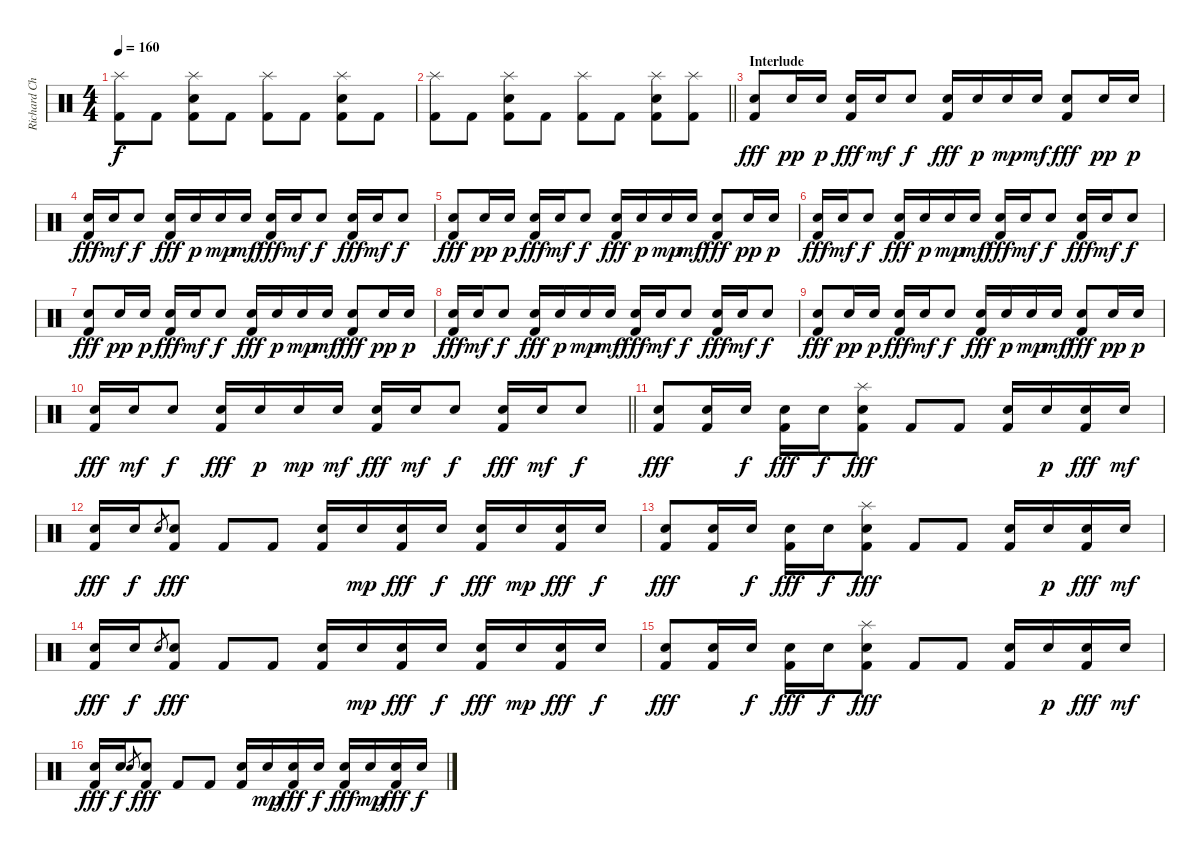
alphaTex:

\track ("Richard Christy" "Richard Ch") {instrument percussion}
\staff {score}
\articulation defaults
\ts (4 4)
\tempo 160
\clef neutral
\ks c
("Splash (hit)" "Kick (hit) 2").8{dy f} "Kick (hit) 2".8 ("Splash (hit)" "Snare (hit) 2" "Kick (hit) 2").8 "Kick (hit) 2".8 ("Splash (hit)" "Kick (hit) 2").8 "Kick (hit) 2".8 ("Splash (hit)" "Snare (hit) 2" "Kick (hit) 2").8 "Kick (hit) 2".8 |
\barLineRight lightlight
("Splash (hit)" "Kick (hit) 2").8 "Kick (hit) 2".8 ("Splash (hit)" "Snare (hit) 2" "Kick (hit) 2").8 "Kick (hit) 2".8 ("Splash (hit)" "Kick (hit) 2").8 "Kick (hit) 2".8 ("Splash (hit)" "Snare (hit) 2" "Kick (hit) 2").8 ("Splash (hit)" "Kick (hit) 2").8 |
\section ("" "Interlude")
("Snare (hit) 2" "Kick (hit) 2").8{dy fff} "Snare (hit) 2".16{dy pp} "Snare (hit) 2".16{dy p} ("Snare (hit) 2" "Kick (hit) 2").16{dy fff} "Snare (hit) 2".16{dy mf} "Snare (hit) 2".8{dy f} ("Snare (hit) 2" "Kick (hit) 2").16{dy fff} "Snare (hit) 2".16{dy p} "Snare (hit) 2".16{dy mp} "Snare (hit) 2".16{dy mf} ("Snare (hit) 2" "Kick (hit) 2").8{dy fff} "Snare (hit) 2".16{dy pp} "Snare (hit) 2".16{dy p} |
("Snare (hit) 2" "Kick (hit) 2").16{dy fff} "Snare (hit) 2".16{dy mf} "Snare (hit) 2".8{dy f} ("Snare (hit) 2" "Kick (hit) 2").16{dy fff} "Snare (hit) 2".16{dy p} "Snare (hit) 2".16{dy mp} "Snare (hit) 2".16{dy mf} ("Snare (hit) 2" "Kick (hit) 2").16{dy fff} "Snare (hit) 2".16{dy mf} "Snare (hit) 2".8{dy f} ("Snare (hit) 2" "Kick (hit) 2").16{dy fff} "Snare (hit) 2".16{dy mf} "Snare (hit) 2".8{dy f} |
("Snare (hit) 2" "Kick (hit) 2").8{dy fff} "Snare (hit) 2".16{dy pp} "Snare (hit) 2".16{dy p} ("Snare (hit) 2" "Kick (hit) 2").16{dy fff} "Snare (hit) 2".16{dy mf} "Snare (hit) 2".8{dy f} ("Snare (hit) 2" "Kick (hit) 2").16{dy fff} "Snare (hit) 2".16{dy p} "Snare (hit) 2".16{dy mp} "Snare (hit) 2".16{dy mf} ("Snare (hit) 2" "Kick (hit) 2").8{dy fff} "Snare (hit) 2".16{dy pp} "Snare (hit) 2".16{dy p} |
("Snare (hit) 2" "Kick (hit) 2").16{dy fff} "Snare (hit) 2".16{dy mf} "Snare (hit) 2".8{dy f} ("Snare (hit) 2" "Kick (hit) 2").16{dy fff} "Snare (hit) 2".16{dy p} "Snare (hit) 2".16{dy mp} "Snare (hit) 2".16{dy mf} ("Snare (hit) 2" "Kick (hit) 2").16{dy fff} "Snare (hit) 2".16{dy mf} "Snare (hit) 2".8{dy f} ("Snare (hit) 2" "Kick (hit) 2").16{dy fff} "Snare (hit) 2".16{dy mf} "Snare (hit) 2".8{dy f} |
("Snare (hit) 2" "Kick (hit) 2").8{dy fff} "Snare (hit) 2".16{dy pp} "Snare (hit) 2".16{dy p} ("Snare (hit) 2" "Kick (hit) 2").16{dy fff} "Snare (hit) 2".16{dy mf} "Snare (hit) 2".8{dy f} ("Snare (hit) 2" "Kick (hit) 2").16{dy fff} "Snare (hit) 2".16{dy p} "Snare (hit) 2".16{dy mp} "Snare (hit) 2".16{dy mf} ("Snare (hit) 2" "Kick (hit) 2").8{dy fff} "Snare (hit) 2".16{dy pp} "Snare (hit) 2".16{dy p} |
("Snare (hit) 2" "Kick (hit) 2").16{dy fff} "Snare (hit) 2".16{dy mf} "Snare (hit) 2".8{dy f} ("Snare (hit) 2" "Kick (hit) 2").16{dy fff} "Snare (hit) 2".16{dy p} "Snare (hit) 2".16{dy mp} "Snare (hit) 2".16{dy mf} ("Snare (hit) 2" "Kick (hit) 2").16{dy fff} "Snare (hit) 2".16{dy mf} "Snare (hit) 2".8{dy f} ("Snare (hit) 2" "Kick (hit) 2").16{dy fff} "Snare (hit) 2".16{dy mf} "Snare (hit) 2".8{dy f} |
("Snare (hit) 2" "Kick (hit) 2").8{dy fff} "Snare (hit) 2".16{dy pp} "Snare (hit) 2".16{dy p} ("Snare (hit) 2" "Kick (hit) 2").16{dy fff} "Snare (hit) 2".16{dy mf} "Snare (hit) 2".8{dy f} ("Snare (hit) 2" "Kick (hit) 2").16{dy fff} "Snare (hit) 2".16{dy p} "Snare (hit) 2".16{dy mp} "Snare (hit) 2".16{dy mf} ("Snare (hit) 2" "Kick (hit) 2").8{dy fff} "Snare (hit) 2".16{dy pp} "Snare (hit) 2".16{dy p} |
\barLineRight lightlight
("Snare (hit) 2" "Kick (hit) 2").16{dy fff} "Snare (hit) 2".16{dy mf} "Snare (hit) 2".8{dy f} ("Snare (hit) 2" "Kick (hit) 2").16{dy fff} "Snare (hit) 2".16{dy p} "Snare (hit) 2".16{dy mp} "Snare (hit) 2".16{dy mf} ("Snare (hit) 2" "Kick (hit) 2").16{dy fff} "Snare (hit) 2".16{dy mf} "Snare (hit) 2".8{dy f} ("Snare (hit) 2" "Kick (hit) 2").16{dy fff} "Snare (hit) 2".16{dy mf} "Snare (hit) 2".8{dy f} |
("Snare (hit) 2" "Kick (hit) 2").8{dy fff} ("Snare (hit) 2" "Kick (hit) 2").16 "Snare (hit) 2".16{dy f} ("Snare (hit) 2" "Kick (hit) 2").16{dy fff} "Snare (hit) 2".16{dy f} ("Splash (hit)" "Snare (hit) 2" "Kick (hit) 2").8{dy fff} "Kick (hit) 2".8 "Kick (hit) 2".8 ("Snare (hit) 2" "Kick (hit) 2").16 "Snare (hit) 2".16{dy p} ("Snare (hit) 2" "Kick (hit) 2").16{dy fff} "Snare (hit) 2".16{dy mf} |
("Snare (hit) 2" "Kick (hit) 2").16{dy fff} "Snare (hit) 2".16{dy f} "Snare (hit) 2".8{gr} ("Snare (hit) 2" "Kick (hit) 2").8{dy fff} "Kick (hit) 2".8 "Kick (hit) 2".8 ("Snare (hit) 2" "Kick (hit) 2").16 "Snare (hit) 2".16{dy mp} ("Snare (hit) 2" "Kick (hit) 2").16{dy fff} "Snare (hit) 2".16{dy f} ("Snare (hit) 2" "Kick (hit) 2").16{dy fff} "Snare (hit) 2".16{dy mp} ("Snare (hit) 2" "Kick (hit) 2").16{dy fff} "Snare (hit) 2".16{dy f} |
("Snare (hit) 2" "Kick (hit) 2").8{dy fff} ("Snare (hit) 2" "Kick (hit) 2").16 "Snare (hit) 2".16{dy f} ("Snare (hit) 2" "Kick (hit) 2").16{dy fff} "Snare (hit) 2".16{dy f} ("Splash (hit)" "Snare (hit) 2" "Kick (hit) 2").8{dy fff} "Kick (hit) 2".8 "Kick (hit) 2".8 ("Snare (hit) 2" "Kick (hit) 2").16 "Snare (hit) 2".16{dy p} ("Snare (hit) 2" "Kick (hit) 2").16{dy fff} "Snare (hit) 2".16{dy mf} |
("Snare (hit) 2" "Kick (hit) 2").16{dy fff} "Snare (hit) 2".16{dy f} "Snare (hit) 2".8{gr} ("Snare (hit) 2" "Kick (hit) 2").8{dy fff} "Kick (hit) 2".8 "Kick (hit) 2".8 ("Snare (hit) 2" "Kick (hit) 2").16 "Snare (hit) 2".16{dy mp} ("Snare (hit) 2" "Kick (hit) 2").16{dy fff} "Snare (hit) 2".16{dy f} ("Snare (hit) 2" "Kick (hit) 2").16{dy fff} "Snare (hit) 2".16{dy mp} ("Snare (hit) 2" "Kick (hit) 2").16{dy fff} "Snare (hit) 2".16{dy f} |
("Snare (hit) 2" "Kick (hit) 2").8{dy fff} ("Snare (hit) 2" "Kick (hit) 2").16 "Snare (hit) 2".16{dy f} ("Snare (hit) 2" "Kick (hit) 2").16{dy fff} "Snare (hit) 2".16{dy f} ("Splash (hit)" "Snare (hit) 2" "Kick (hit) 2").8{dy fff} "Kick (hit) 2".8 "Kick (hit) 2".8 ("Snare (hit) 2" "Kick (hit) 2").16 "Snare (hit) 2".16{dy p} ("Snare (hit) 2" "Kick (hit) 2").16{dy fff} "Snare (hit) 2".16{dy mf} |
("Snare (hit) 2" "Kick (hit) 2").16{dy fff} "Snare (hit) 2".16{dy f} "Snare (hit) 2".8{gr} ("Snare (hit) 2" "Kick (hit) 2").8{dy fff} "Kick (hit) 2".8 "Kick (hit) 2".8 ("Snare (hit) 2" "Kick (hit) 2").16 "Snare (hit) 2".16{dy mp} ("Snare (hit) 2" "Kick (hit) 2").16{dy fff} "Snare (hit) 2".16{dy f} ("Snare (hit) 2" "Kick (hit) 2").16{dy fff} "Snare (hit) 2".16{dy mp} ("Snare (hit) 2" "Kick (hit) 2").16{dy fff} "Snare (hit) 2".16{dy f}
